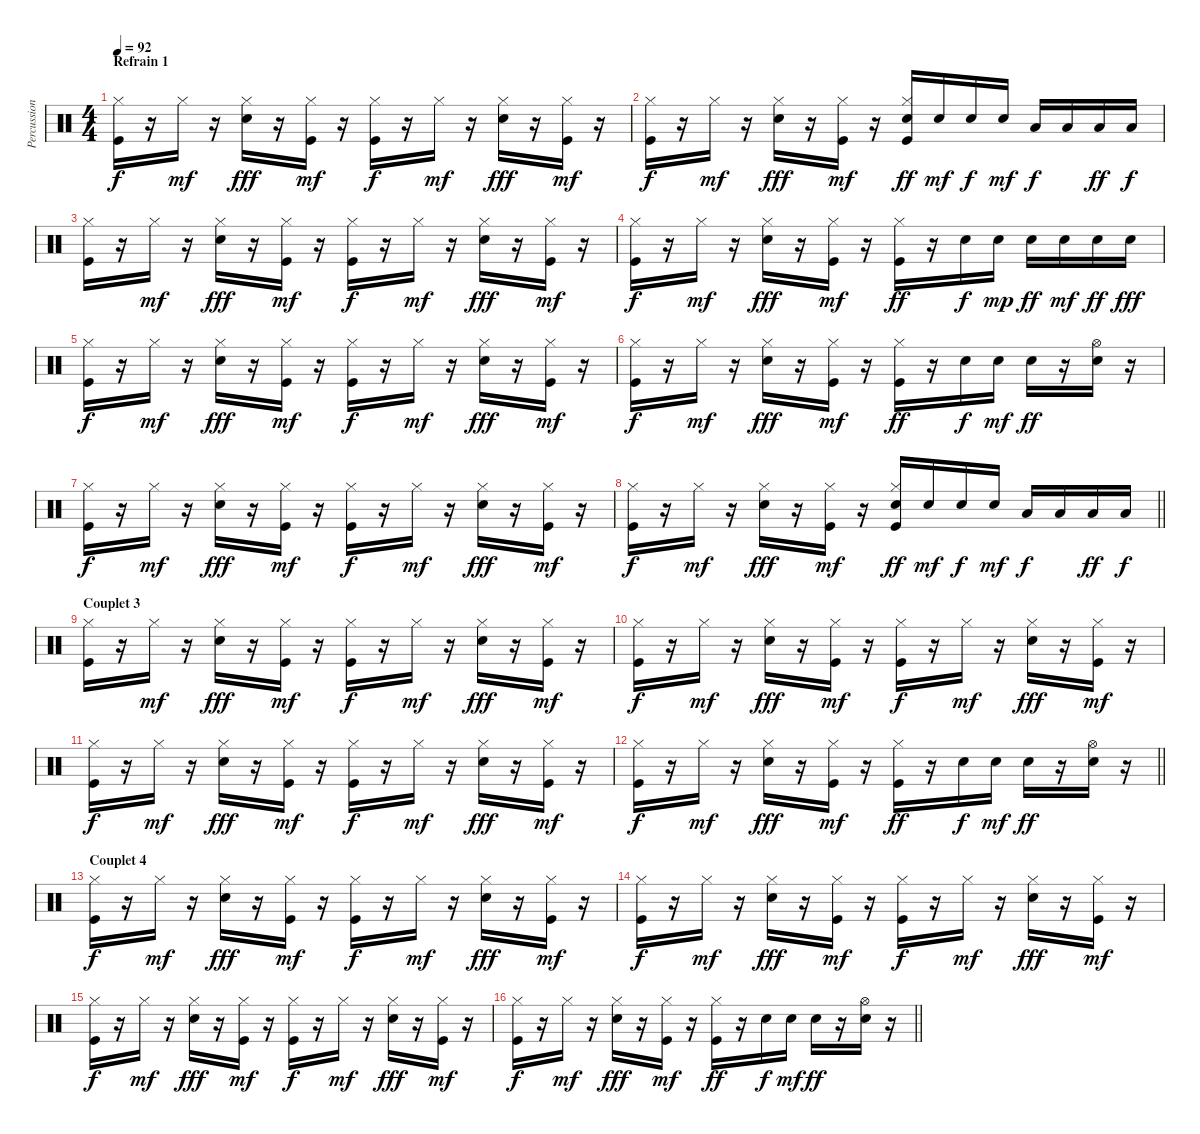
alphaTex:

\track ("Percussions" "Percussion") {instrument percussion}
\staff {score}
\articulation defaults
\ts (4 4)
\section ("" "Refrain 1")
\tempo 92
\clef neutral
\ks c
("Kick (hit)" "Hi-Hat (closed)").16{dy f} r.16 "Hi-Hat (closed)".16{dy mf} r.16 ("Snare (hit) 2" "Hi-Hat (closed)").16{dy fff} r.16 ("Kick (hit)" "Hi-Hat (closed)").16{dy mf} r.16 ("Kick (hit)" "Hi-Hat (closed)").16{dy f} r.16 "Hi-Hat (closed)".16{dy mf} r.16 ("Snare (hit) 2" "Hi-Hat (closed)").16{dy fff} r.16 ("Kick (hit)" "Hi-Hat (closed)").16{dy mf} r.16 |
("Kick (hit)" "Hi-Hat (closed)").16{dy f} r.16 "Hi-Hat (closed)".16{dy mf} r.16 ("Snare (hit) 2" "Hi-Hat (closed)").16{dy fff} r.16 ("Kick (hit)" "Hi-Hat (closed)").16{dy mf} r.16 ("Kick (hit)" "Snare (hit) 2" "Hi-Hat (closed)").16{dy ff} "Snare (hit) 2".16{dy mf} "Snare (hit) 2".16{dy f} "Snare (hit) 2".16{dy mf} "Low Tom (hit)".16{dy f} "Low Tom (hit)".16 "Low Tom (hit)".16{dy ff} "Low Tom (hit)".16{dy f} |
("Kick (hit)" "Hi-Hat (closed)").16 r.16 "Hi-Hat (closed)".16{dy mf} r.16 ("Snare (hit) 2" "Hi-Hat (closed)").16{dy fff} r.16 ("Kick (hit)" "Hi-Hat (closed)").16{dy mf} r.16 ("Kick (hit)" "Hi-Hat (closed)").16{dy f} r.16 "Hi-Hat (closed)".16{dy mf} r.16 ("Snare (hit) 2" "Hi-Hat (closed)").16{dy fff} r.16 ("Kick (hit)" "Hi-Hat (closed)").16{dy mf} r.16 |
("Kick (hit)" "Hi-Hat (closed)").16{dy f} r.16 "Hi-Hat (closed)".16{dy mf} r.16 ("Snare (hit) 2" "Hi-Hat (closed)").16{dy fff} r.16 ("Kick (hit)" "Hi-Hat (closed)").16{dy mf} r.16 ("Kick (hit)" "Hi-Hat (closed)").16{dy ff} r.16 "Snare (hit) 2".16{dy f} "Snare (hit) 2".16{dy mp} "Snare (hit) 2".16{dy ff} "Snare (hit) 2".16{dy mf} "Snare (hit) 2".16{dy ff} "Snare (hit) 2".16{dy fff} |
("Kick (hit)" "Hi-Hat (closed)").16{dy f} r.16 "Hi-Hat (closed)".16{dy mf} r.16 ("Snare (hit) 2" "Hi-Hat (closed)").16{dy fff} r.16 ("Kick (hit)" "Hi-Hat (closed)").16{dy mf} r.16 ("Kick (hit)" "Hi-Hat (closed)").16{dy f} r.16 "Hi-Hat (closed)".16{dy mf} r.16 ("Snare (hit) 2" "Hi-Hat (closed)").16{dy fff} r.16 ("Kick (hit)" "Hi-Hat (closed)").16{dy mf} r.16 |
("Kick (hit)" "Hi-Hat (closed)").16{dy f} r.16 "Hi-Hat (closed)".16{dy mf} r.16 ("Snare (hit) 2" "Hi-Hat (closed)").16{dy fff} r.16 ("Kick (hit)" "Hi-Hat (closed)").16{dy mf} r.16 ("Kick (hit)" "Hi-Hat (closed)").16{dy ff} r.16 "Snare (hit) 2".16{dy f} "Snare (hit) 2".16{dy mf} "Snare (hit) 2".16{dy ff} r.16 ("Snare (hit) 2" "Hi-Hat (open)").16 r.16 |
("Kick (hit)" "Hi-Hat (closed)").16{dy f} r.16 "Hi-Hat (closed)".16{dy mf} r.16 ("Snare (hit) 2" "Hi-Hat (closed)").16{dy fff} r.16 ("Kick (hit)" "Hi-Hat (closed)").16{dy mf} r.16 ("Kick (hit)" "Hi-Hat (closed)").16{dy f} r.16 "Hi-Hat (closed)".16{dy mf} r.16 ("Snare (hit) 2" "Hi-Hat (closed)").16{dy fff} r.16 ("Kick (hit)" "Hi-Hat (closed)").16{dy mf} r.16 |
\barLineRight lightlight
("Kick (hit)" "Hi-Hat (closed)").16{dy f} r.16 "Hi-Hat (closed)".16{dy mf} r.16 ("Snare (hit) 2" "Hi-Hat (closed)").16{dy fff} r.16 ("Kick (hit)" "Hi-Hat (closed)").16{dy mf} r.16 ("Kick (hit)" "Snare (hit) 2" "Hi-Hat (closed)").16{dy ff} "Snare (hit) 2".16{dy mf} "Snare (hit) 2".16{dy f} "Snare (hit) 2".16{dy mf} "Low Tom (hit)".16{dy f} "Low Tom (hit)".16 "Low Tom (hit)".16{dy ff} "Low Tom (hit)".16{dy f} |
\section ("" "Couplet 3")
("Kick (hit)" "Hi-Hat (closed)").16 r.16 "Hi-Hat (closed)".16{dy mf} r.16 ("Snare (hit) 2" "Hi-Hat (closed)").16{dy fff} r.16 ("Kick (hit)" "Hi-Hat (closed)").16{dy mf} r.16 ("Kick (hit)" "Hi-Hat (closed)").16{dy f} r.16 "Hi-Hat (closed)".16{dy mf} r.16 ("Snare (hit) 2" "Hi-Hat (closed)").16{dy fff} r.16 ("Kick (hit)" "Hi-Hat (closed)").16{dy mf} r.16 |
("Kick (hit)" "Hi-Hat (closed)").16{dy f} r.16 "Hi-Hat (closed)".16{dy mf} r.16 ("Snare (hit) 2" "Hi-Hat (closed)").16{dy fff} r.16 ("Kick (hit)" "Hi-Hat (closed)").16{dy mf} r.16 ("Kick (hit)" "Hi-Hat (closed)").16{dy f} r.16 "Hi-Hat (closed)".16{dy mf} r.16 ("Snare (hit) 2" "Hi-Hat (closed)").16{dy fff} r.16 ("Kick (hit)" "Hi-Hat (closed)").16{dy mf} r.16 |
("Kick (hit)" "Hi-Hat (closed)").16{dy f} r.16 "Hi-Hat (closed)".16{dy mf} r.16 ("Snare (hit) 2" "Hi-Hat (closed)").16{dy fff} r.16 ("Kick (hit)" "Hi-Hat (closed)").16{dy mf} r.16 ("Kick (hit)" "Hi-Hat (closed)").16{dy f} r.16 "Hi-Hat (closed)".16{dy mf} r.16 ("Snare (hit) 2" "Hi-Hat (closed)").16{dy fff} r.16 ("Kick (hit)" "Hi-Hat (closed)").16{dy mf} r.16 |
\barLineRight lightlight
("Kick (hit)" "Hi-Hat (closed)").16{dy f} r.16 "Hi-Hat (closed)".16{dy mf} r.16 ("Snare (hit) 2" "Hi-Hat (closed)").16{dy fff} r.16 ("Kick (hit)" "Hi-Hat (closed)").16{dy mf} r.16 ("Kick (hit)" "Hi-Hat (closed)").16{dy ff} r.16 "Snare (hit) 2".16{dy f} "Snare (hit) 2".16{dy mf} "Snare (hit) 2".16{dy ff} r.16 ("Snare (hit) 2" "Hi-Hat (open)").16 r.16 |
\section ("" "Couplet 4")
("Kick (hit)" "Hi-Hat (closed)").16{dy f} r.16 "Hi-Hat (closed)".16{dy mf} r.16 ("Snare (hit) 2" "Hi-Hat (closed)").16{dy fff} r.16 ("Kick (hit)" "Hi-Hat (closed)").16{dy mf} r.16 ("Kick (hit)" "Hi-Hat (closed)").16{dy f} r.16 "Hi-Hat (closed)".16{dy mf} r.16 ("Snare (hit) 2" "Hi-Hat (closed)").16{dy fff} r.16 ("Kick (hit)" "Hi-Hat (closed)").16{dy mf} r.16 |
("Kick (hit)" "Hi-Hat (closed)").16{dy f} r.16 "Hi-Hat (closed)".16{dy mf} r.16 ("Snare (hit) 2" "Hi-Hat (closed)").16{dy fff} r.16 ("Kick (hit)" "Hi-Hat (closed)").16{dy mf} r.16 ("Kick (hit)" "Hi-Hat (closed)").16{dy f} r.16 "Hi-Hat (closed)".16{dy mf} r.16 ("Snare (hit) 2" "Hi-Hat (closed)").16{dy fff} r.16 ("Kick (hit)" "Hi-Hat (closed)").16{dy mf} r.16 |
("Kick (hit)" "Hi-Hat (closed)").16{dy f} r.16 "Hi-Hat (closed)".16{dy mf} r.16 ("Snare (hit) 2" "Hi-Hat (closed)").16{dy fff} r.16 ("Kick (hit)" "Hi-Hat (closed)").16{dy mf} r.16 ("Kick (hit)" "Hi-Hat (closed)").16{dy f} r.16 "Hi-Hat (closed)".16{dy mf} r.16 ("Snare (hit) 2" "Hi-Hat (closed)").16{dy fff} r.16 ("Kick (hit)" "Hi-Hat (closed)").16{dy mf} r.16 |
\barLineRight lightlight
("Kick (hit)" "Hi-Hat (closed)").16{dy f} r.16 "Hi-Hat (closed)".16{dy mf} r.16 ("Snare (hit) 2" "Hi-Hat (closed)").16{dy fff} r.16 ("Kick (hit)" "Hi-Hat (closed)").16{dy mf} r.16 ("Kick (hit)" "Hi-Hat (closed)").16{dy ff} r.16 "Snare (hit) 2".16{dy f} "Snare (hit) 2".16{dy mf} "Snare (hit) 2".16{dy ff} r.16 ("Snare (hit) 2" "Hi-Hat (open)").16 r.16
